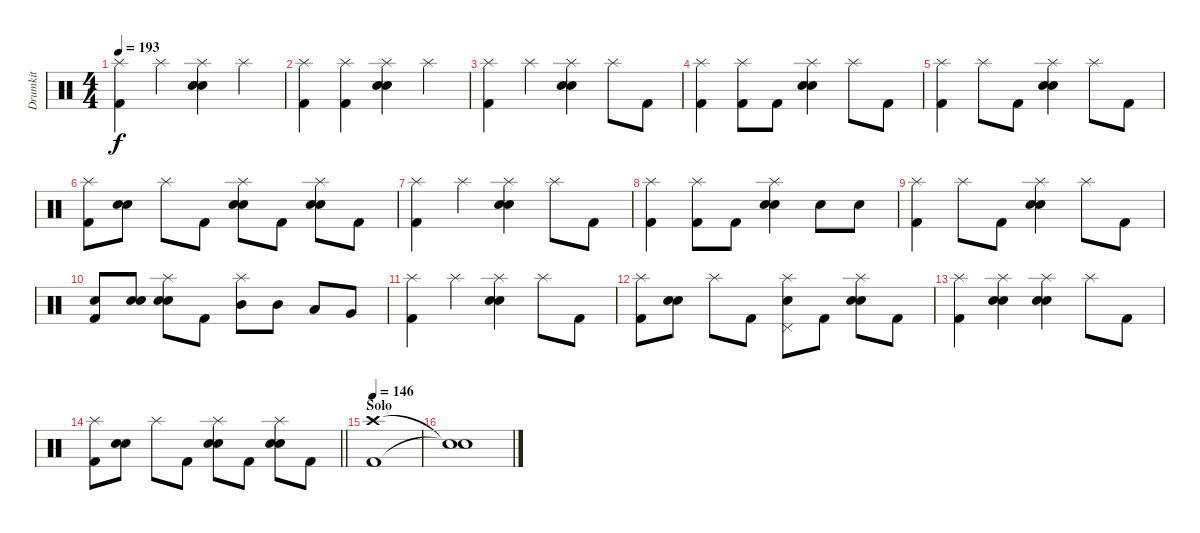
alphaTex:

\track ("Drumkit" "Drumkit") {instrument percussion}
\staff {score}
\articulation defaults
\ts (4 4)
\tempo 193
\clef neutral
\ks c
("Kick (hit) 2" "Splash (hit)").4{dy f} "Splash (hit)".4 ("Splash (hit)" "Snare (hit) 2" "Electric Snare (hit)").4 "Splash (hit)".4 |
("Kick (hit) 2" "Splash (hit)").4 ("Splash (hit)" "Kick (hit) 2").4 ("Splash (hit)" "Snare (hit) 2" "Electric Snare (hit)").4 "Splash (hit)".4 |
("Kick (hit) 2" "Splash (hit)").4 "Splash (hit)".4 ("Splash (hit)" "Snare (hit) 2" "Electric Snare (hit)").4 "Splash (hit)".8 "Kick (hit) 2".8 |
("Kick (hit) 2" "Splash (hit)").4 ("Splash (hit)" "Kick (hit) 2").8 "Kick (hit) 2".8 ("Splash (hit)" "Snare (hit) 2" "Electric Snare (hit)").4 "Splash (hit)".8 "Kick (hit) 2".8 |
("Kick (hit) 2" "Splash (hit)").4 "Splash (hit)".8 "Kick (hit) 2".8 ("Splash (hit)" "Snare (hit) 2" "Electric Snare (hit)").4 "Splash (hit)".8 "Kick (hit) 2".8 |
("Kick (hit) 2" "Splash (hit)").8 ("Snare (hit) 2" "Electric Snare (hit)").8 "Splash (hit)".8 "Kick (hit) 2".8 ("Splash (hit)" "Snare (hit) 2" "Electric Snare (hit)").8 "Kick (hit) 2".8 ("Splash (hit)" "Snare (hit) 2" "Electric Snare (hit)").8 "Kick (hit) 2".8 |
("Kick (hit) 2" "Splash (hit)").4 "Splash (hit)".4 ("Splash (hit)" "Snare (hit) 2" "Electric Snare (hit)").4 "Splash (hit)".8 "Kick (hit) 2".8 |
("Kick (hit) 2" "Splash (hit)").4 ("Splash (hit)" "Kick (hit) 2").8 "Kick (hit) 2".8 ("Splash (hit)" "Snare (hit) 2" "Electric Snare (hit)").4 "Electric Snare (hit)".8 "Electric Snare (hit)".8 |
("Kick (hit) 2" "Splash (hit)").4 "Splash (hit)".8 "Kick (hit) 2".8 ("Splash (hit)" "Snare (hit) 2" "Electric Snare (hit)").4 "Splash (hit)".8 "Kick (hit) 2".8 |
("Kick (hit) 2" "Snare (hit)").8 ("Snare (hit) 2" "Electric Snare (hit)").8 ("Splash (hit)" "Snare (hit) 2" "Electric Snare (hit)").8 "Kick (hit) 2".8 ("Splash (hit)" "Mid Tom (hit)").8 "Mid Tom (hit)".8 "Low Tom (hit)".8 "Very Low Tom (hit)".8 |
("Kick (hit) 2" "Splash (hit)").4 "Splash (hit)".4 ("Splash (hit)" "Snare (hit) 2" "Electric Snare (hit)").4 "Splash (hit)".8 "Kick (hit) 2".8 |
("Kick (hit) 2" "Splash (hit)").8 ("Snare (hit) 2" "Electric Snare (hit)").8 "Splash (hit)".8 "Kick (hit) 2".8 ("Splash (hit)" "Snare (hit) 2" "Pedal Hi-Hat (hit)").8 "Kick (hit) 2".8 ("Splash (hit)" "Snare (hit) 2" "Electric Snare (hit)").8 "Kick (hit) 2".8 |
("Kick (hit) 2" "Splash (hit)").4 ("Splash (hit)" "Snare (hit) 2" "Electric Snare (hit)").4 ("Splash (hit)" "Snare (hit) 2" "Electric Snare (hit)").4 "Splash (hit)".8 "Kick (hit) 2".8 |
\barLineRight lightlight
("Kick (hit) 2" "Splash (hit)").8 ("Snare (hit) 2" "Electric Snare (hit)").8 "Splash (hit)".8 "Kick (hit) 2".8 ("Splash (hit)" "Snare (hit) 2" "Electric Snare (hit)").8 "Kick (hit) 2".8 ("Splash (hit)" "Snare (hit) 2" "Electric Snare (hit)").8 "Kick (hit) 2".8 |
\section ("" "Solo")
\tempo 146
("Crash high (hit)" "Kick (hit) 2").1 |
("Snare (hit)"{t} "Snare (hit)"{t}).1
